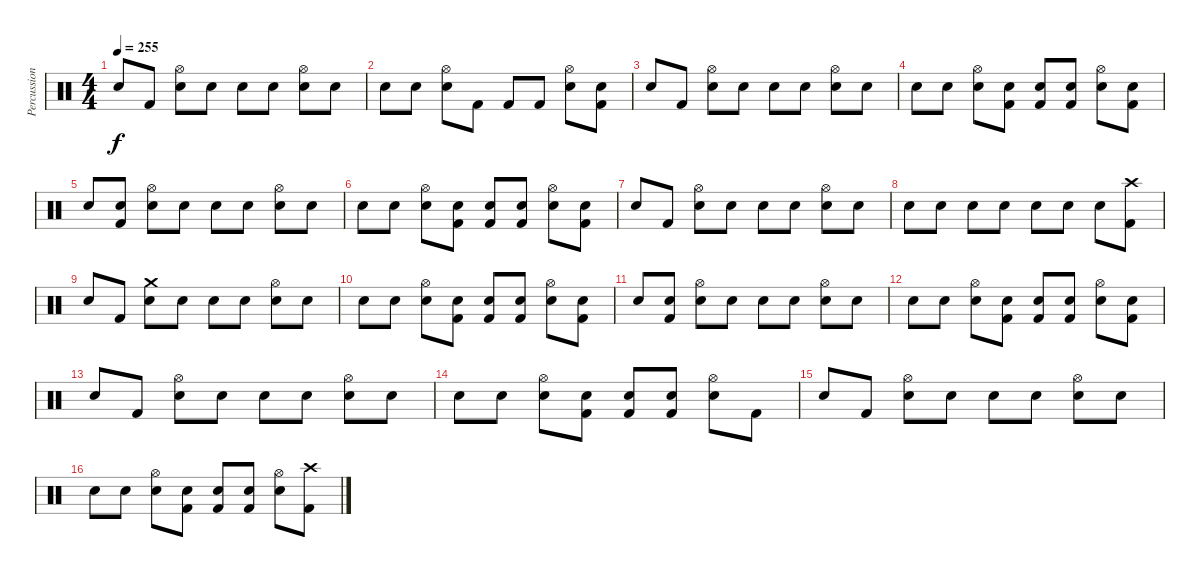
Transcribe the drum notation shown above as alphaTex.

\track ("Percussion" "Percussion") {instrument percussion}
\staff {score}
\articulation defaults
\ts (4 4)
\tempo 255
\clef neutral
\ks c "Snare (hit)"{x}.8{dy f} "Kick (hit) 2".8
("Snare (hit) 2" "Hi-Hat (open)").8 "Snare (hit)"{x}.8 "Snare (hit)"{x}.8 "Snare (hit)"{x}.8 ("Snare (hit) 2" "Hi-Hat (open)").8 "Snare (hit)"{x}.8 |
"Snare (hit)"{x}.8 "Snare (hit)"{x}.8 ("Snare (hit) 2" "Hi-Hat (open)").8 "Kick (hit) 2".8 "Kick (hit) 2"{x}.8 "Kick (hit) 2".8 ("Snare (hit) 2" "Hi-Hat (open)").8 ("Kick (hit) 2" "Snare (hit)"{x}).8 |
"Snare (hit)"{x}.8 "Kick (hit) 2".8 ("Snare (hit) 2" "Hi-Hat (open)").8 "Snare (hit)"{x}.8 "Snare (hit)"{x}.8 "Snare (hit)"{x}.8 ("Snare (hit) 2" "Hi-Hat (open)").8 "Snare (hit)"{x}.8 |
"Snare (hit)"{x}.8 "Snare (hit)"{x}.8 ("Snare (hit) 2" "Hi-Hat (open)").8 ("Kick (hit) 2" "Snare (hit)"{x}).8 ("Kick (hit) 2"{x} "Snare (hit)"{x}).8 ("Kick (hit) 2" "Snare (hit)"{x}).8 ("Snare (hit) 2" "Hi-Hat (open)").8 ("Kick (hit) 2" "Snare (hit)"{x}).8 |
"Snare (hit)"{x}.8 ("Kick (hit) 2" "Snare (hit)"{x}).8 ("Snare (hit) 2" "Hi-Hat (open)").8 "Snare (hit)"{x}.8 "Snare (hit)"{x}.8 "Snare (hit)"{x}.8 ("Snare (hit) 2" "Hi-Hat (open)").8 "Snare (hit)"{x}.8 |
"Snare (hit)"{x}.8 "Snare (hit)"{x}.8 ("Snare (hit) 2" "Hi-Hat (open)").8 ("Kick (hit) 2" "Snare (hit)"{x}).8 ("Kick (hit) 2"{x} "Snare (hit)"{x}).8 ("Kick (hit) 2" "Snare (hit)"{x}).8 ("Snare (hit) 2" "Hi-Hat (open)").8 ("Kick (hit) 2" "Snare (hit)"{x}).8 |
"Snare (hit)"{x}.8 "Kick (hit) 2".8 ("Snare (hit) 2" "Hi-Hat (open)").8 "Snare (hit) 2"{x}.8 "Snare (hit) 2"{x}.8 "Snare (hit) 2"{x}.8 ("Snare (hit) 2" "Hi-Hat (open)").8 "Snare (hit) 2".8 |
"Snare (hit) 2".8 "Snare (hit) 2".8 "Snare (hit) 2".8 "Snare (hit) 2".8 "Snare (hit) 2".8 "Snare (hit) 2".8 "Snare (hit) 2".8 ("Kick (hit) 2" "Crash high (hit)").8 |
"Snare (hit)"{x}.8 "Kick (hit) 2".8 ("Snare (hit) 2" "Crash medium (hit)").8 "Snare (hit)"{x}.8 "Snare (hit)"{x}.8 "Snare (hit)"{x}.8 ("Snare (hit) 2" "Hi-Hat (open)").8 "Snare (hit)"{x}.8 |
"Snare (hit)"{x}.8 "Snare (hit)"{x}.8 ("Snare (hit) 2" "Hi-Hat (open)").8 ("Kick (hit) 2" "Snare (hit)"{x}).8 ("Kick (hit) 2"{x} "Snare (hit)"{x}).8 ("Kick (hit) 2" "Snare (hit)"{x}).8 ("Snare (hit) 2" "Hi-Hat (open)").8 ("Kick (hit) 2" "Snare (hit)"{x}).8 |
"Snare (hit)"{x}.8 ("Kick (hit) 2" "Snare (hit)"{x}).8 ("Snare (hit) 2" "Hi-Hat (open)").8 "Snare (hit)"{x}.8 "Snare (hit)"{x}.8 "Snare (hit)"{x}.8 ("Snare (hit) 2" "Hi-Hat (open)").8 "Snare (hit)"{x}.8 |
"Snare (hit)"{x}.8 "Snare (hit)"{x}.8 ("Snare (hit) 2" "Hi-Hat (open)").8 ("Kick (hit) 2" "Snare (hit)"{x}).8 ("Kick (hit) 2"{x} "Snare (hit)"{x}).8 ("Kick (hit) 2" "Snare (hit)"{x}).8 ("Snare (hit) 2" "Hi-Hat (open)").8 ("Kick (hit) 2" "Snare (hit)"{x}).8 |
"Snare (hit)"{x}.8 "Kick (hit) 2".8 ("Snare (hit) 2" "Hi-Hat (open)").8 "Snare (hit)"{x}.8 "Snare (hit)"{x}.8 "Snare (hit)"{x}.8 ("Snare (hit) 2" "Hi-Hat (open)").8 "Snare (hit)"{x}.8 |
"Snare (hit)"{x}.8 "Snare (hit)"{x}.8 ("Snare (hit) 2" "Hi-Hat (open)").8 ("Kick (hit) 2" "Snare (hit)"{x}).8 ("Kick (hit) 2"{x} "Snare (hit)"{x}).8 ("Kick (hit) 2" "Snare (hit)"{x}).8 ("Snare (hit) 2" "Hi-Hat (open)").8 "Kick (hit) 2".8 |
"Snare (hit)"{x}.8 "Kick (hit) 2".8 ("Snare (hit) 2" "Hi-Hat (open)").8 "Snare (hit)"{x}.8 "Snare (hit)"{x}.8 "Snare (hit)"{x}.8 ("Snare (hit) 2" "Hi-Hat (open)").8 "Snare (hit)"{x}.8 |
"Snare (hit)"{x}.8 "Snare (hit)"{x}.8 ("Snare (hit) 2" "Hi-Hat (open)").8 ("Kick (hit) 2" "Snare (hit)"{x}).8 ("Kick (hit) 2"{x} "Snare (hit)"{x}).8 ("Kick (hit) 2" "Snare (hit)"{x}).8 ("Snare (hit) 2" "Hi-Hat (open)").8 ("Kick (hit) 2" "Crash high (hit)").8
